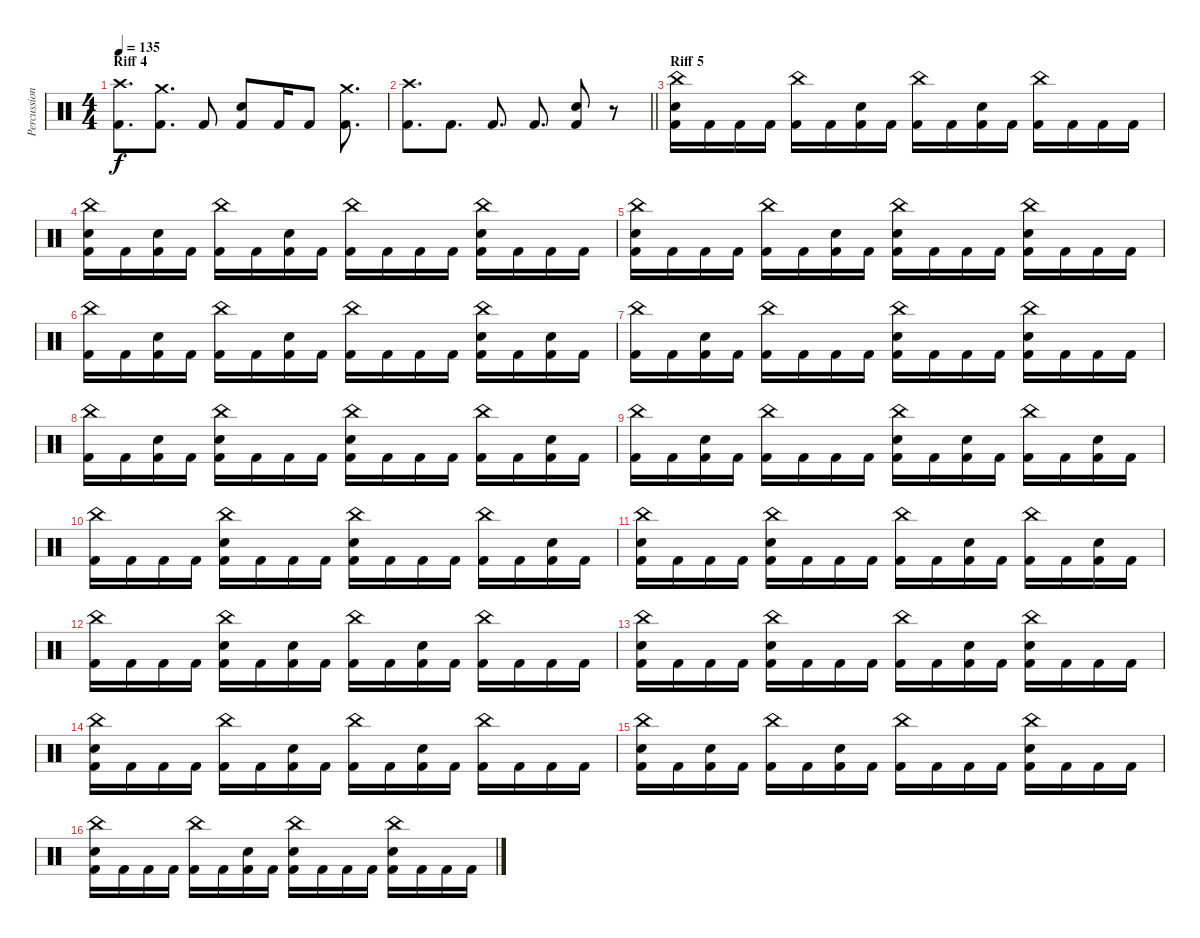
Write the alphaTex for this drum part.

\track ("Percussion" "Percussion") {instrument percussion}
\staff {score}
\articulation defaults
\ts (4 4)
\section ("" "Riff 4")
\tempo 135
\clef neutral
\ks c
("Crash high (hit)" "Kick (hit) 2").8{d dy f} ("Crash medium (hit)" "Kick (hit) 2").8{d} "Kick (hit) 2".8 ("Snare (hit) 2" "Kick (hit) 2").8 "Kick (hit) 2".16 "Kick (hit) 2".8 ("Crash medium (hit)" "Kick (hit) 2").8{d} |
\barLineRight lightlight
("Crash high (hit)" "Kick (hit) 2").8{d} "Kick (hit) 2".8{d} "Kick (hit) 2".8{d} "Kick (hit) 2".8{d} ("Snare (hit) 2" "Kick (hit) 2").8 r.8 |
\section ("" "Riff 5")
("China (hit)" "Snare (hit) 2" "Kick (hit) 2").16{volume 9} "Kick (hit) 2".16 "Kick (hit) 2".16 "Kick (hit) 2".16 ("China (hit)" "Kick (hit) 2").16 "Kick (hit) 2".16 ("Snare (hit) 2" "Kick (hit) 2").16 "Kick (hit) 2".16 ("China (hit)" "Kick (hit) 2").16 "Kick (hit) 2".16 ("Snare (hit) 2" "Kick (hit) 2").16 "Kick (hit) 2".16 ("China (hit)" "Kick (hit) 2").16 "Kick (hit) 2".16 "Kick (hit) 2".16 "Kick (hit) 2".16 |
("China (hit)" "Snare (hit) 2" "Kick (hit) 2").16 "Kick (hit) 2".16 ("Snare (hit) 2" "Kick (hit) 2").16 "Kick (hit) 2".16 ("China (hit)" "Kick (hit) 2").16 "Kick (hit) 2".16 ("Snare (hit) 2" "Kick (hit) 2").16 "Kick (hit) 2".16 ("China (hit)" "Kick (hit) 2").16 "Kick (hit) 2".16 "Kick (hit) 2".16 "Kick (hit) 2".16 ("China (hit)" "Snare (hit) 2" "Kick (hit) 2").16 "Kick (hit) 2".16 "Kick (hit) 2".16 "Kick (hit) 2".16 |
("China (hit)" "Snare (hit) 2" "Kick (hit) 2").16 "Kick (hit) 2".16 "Kick (hit) 2".16 "Kick (hit) 2".16 ("China (hit)" "Kick (hit) 2").16 "Kick (hit) 2".16 ("Snare (hit) 2" "Kick (hit) 2").16 "Kick (hit) 2".16 ("China (hit)" "Snare (hit) 2" "Kick (hit) 2").16 "Kick (hit) 2".16 "Kick (hit) 2".16 "Kick (hit) 2".16 ("China (hit)" "Snare (hit) 2" "Kick (hit) 2").16 "Kick (hit) 2".16 "Kick (hit) 2".16 "Kick (hit) 2".16 |
("China (hit)" "Kick (hit) 2").16 "Kick (hit) 2".16 ("Snare (hit) 2" "Kick (hit) 2").16 "Kick (hit) 2".16 ("China (hit)" "Kick (hit) 2").16 "Kick (hit) 2".16 ("Snare (hit) 2" "Kick (hit) 2").16 "Kick (hit) 2".16 ("China (hit)" "Kick (hit) 2").16 "Kick (hit) 2".16 "Kick (hit) 2".16 "Kick (hit) 2".16 ("China (hit)" "Snare (hit) 2" "Kick (hit) 2").16 "Kick (hit) 2".16 ("Snare (hit) 2" "Kick (hit) 2").16 "Kick (hit) 2".16 |
("China (hit)" "Kick (hit) 2").16 "Kick (hit) 2".16 ("Snare (hit) 2" "Kick (hit) 2").16 "Kick (hit) 2".16 ("China (hit)" "Kick (hit) 2").16 "Kick (hit) 2".16 "Kick (hit) 2".16 "Kick (hit) 2".16 ("China (hit)" "Snare (hit) 2" "Kick (hit) 2").16 "Kick (hit) 2".16 "Kick (hit) 2".16 "Kick (hit) 2".16 ("China (hit)" "Snare (hit) 2" "Kick (hit) 2").16 "Kick (hit) 2".16 "Kick (hit) 2".16 "Kick (hit) 2".16 |
("China (hit)" "Kick (hit) 2").16 "Kick (hit) 2".16 ("Snare (hit) 2" "Kick (hit) 2").16 "Kick (hit) 2".16 ("China (hit)" "Snare (hit) 2" "Kick (hit) 2").16 "Kick (hit) 2".16 "Kick (hit) 2".16 "Kick (hit) 2".16 ("China (hit)" "Snare (hit) 2" "Kick (hit) 2").16 "Kick (hit) 2".16 "Kick (hit) 2".16 "Kick (hit) 2".16 ("China (hit)" "Kick (hit) 2").16 "Kick (hit) 2".16 ("Snare (hit) 2" "Kick (hit) 2").16 "Kick (hit) 2".16 |
("China (hit)" "Kick (hit) 2").16 "Kick (hit) 2".16 ("Snare (hit) 2" "Kick (hit) 2").16 "Kick (hit) 2".16 ("China (hit)" "Kick (hit) 2").16 "Kick (hit) 2".16 "Kick (hit) 2".16 "Kick (hit) 2".16 ("China (hit)" "Snare (hit) 2" "Kick (hit) 2").16 "Kick (hit) 2".16 ("Snare (hit) 2" "Kick (hit) 2").16 "Kick (hit) 2".16 ("China (hit)" "Kick (hit) 2").16 "Kick (hit) 2".16 ("Snare (hit) 2" "Kick (hit) 2").16 "Kick (hit) 2".16 |
("China (hit)" "Kick (hit) 2").16 "Kick (hit) 2".16 "Kick (hit) 2".16 "Kick (hit) 2".16 ("China (hit)" "Snare (hit) 2" "Kick (hit) 2").16 "Kick (hit) 2".16 "Kick (hit) 2".16 "Kick (hit) 2".16 ("China (hit)" "Snare (hit) 2" "Kick (hit) 2").16 "Kick (hit) 2".16 "Kick (hit) 2".16 "Kick (hit) 2".16 ("China (hit)" "Kick (hit) 2").16 "Kick (hit) 2".16 ("Snare (hit) 2" "Kick (hit) 2").16 "Kick (hit) 2".16 |
("China (hit)" "Snare (hit) 2" "Kick (hit) 2").16 "Kick (hit) 2".16 "Kick (hit) 2".16 "Kick (hit) 2".16 ("China (hit)" "Snare (hit) 2" "Kick (hit) 2").16 "Kick (hit) 2".16 "Kick (hit) 2".16 "Kick (hit) 2".16 ("China (hit)" "Kick (hit) 2").16 "Kick (hit) 2".16 ("Snare (hit) 2" "Kick (hit) 2").16 "Kick (hit) 2".16 ("China (hit)" "Kick (hit) 2").16 "Kick (hit) 2".16 ("Snare (hit) 2" "Kick (hit) 2").16 "Kick (hit) 2".16 |
("China (hit)" "Kick (hit) 2").16 "Kick (hit) 2".16 "Kick (hit) 2".16 "Kick (hit) 2".16 ("China (hit)" "Snare (hit) 2" "Kick (hit) 2").16 "Kick (hit) 2".16 ("Snare (hit) 2" "Kick (hit) 2").16 "Kick (hit) 2".16 ("China (hit)" "Kick (hit) 2").16 "Kick (hit) 2".16 ("Snare (hit) 2" "Kick (hit) 2").16 "Kick (hit) 2".16 ("China (hit)" "Kick (hit) 2").16 "Kick (hit) 2".16 "Kick (hit) 2".16 "Kick (hit) 2".16 |
("China (hit)" "Snare (hit) 2" "Kick (hit) 2").16 "Kick (hit) 2".16 "Kick (hit) 2".16 "Kick (hit) 2".16 ("China (hit)" "Snare (hit) 2" "Kick (hit) 2").16 "Kick (hit) 2".16 "Kick (hit) 2".16 "Kick (hit) 2".16 ("China (hit)" "Kick (hit) 2").16 "Kick (hit) 2".16 ("Snare (hit) 2" "Kick (hit) 2").16 "Kick (hit) 2".16 ("China (hit)" "Snare (hit) 2" "Kick (hit) 2").16 "Kick (hit) 2".16 "Kick (hit) 2".16 "Kick (hit) 2".16 |
("China (hit)" "Snare (hit) 2" "Kick (hit) 2").16 "Kick (hit) 2".16 "Kick (hit) 2".16 "Kick (hit) 2".16 ("China (hit)" "Kick (hit) 2").16 "Kick (hit) 2".16 ("Snare (hit) 2" "Kick (hit) 2").16 "Kick (hit) 2".16 ("China (hit)" "Kick (hit) 2").16 "Kick (hit) 2".16 ("Snare (hit) 2" "Kick (hit) 2").16 "Kick (hit) 2".16 ("China (hit)" "Kick (hit) 2").16 "Kick (hit) 2".16 "Kick (hit) 2".16 "Kick (hit) 2".16 |
("China (hit)" "Snare (hit) 2" "Kick (hit) 2").16 "Kick (hit) 2".16 ("Snare (hit) 2" "Kick (hit) 2").16 "Kick (hit) 2".16 ("China (hit)" "Kick (hit) 2").16 "Kick (hit) 2".16 ("Snare (hit) 2" "Kick (hit) 2").16 "Kick (hit) 2".16 ("China (hit)" "Kick (hit) 2").16 "Kick (hit) 2".16 "Kick (hit) 2".16 "Kick (hit) 2".16 ("China (hit)" "Snare (hit) 2" "Kick (hit) 2").16 "Kick (hit) 2".16 "Kick (hit) 2".16 "Kick (hit) 2".16 |
("China (hit)" "Snare (hit) 2" "Kick (hit) 2").16 "Kick (hit) 2".16 "Kick (hit) 2".16 "Kick (hit) 2".16 ("China (hit)" "Kick (hit) 2").16 "Kick (hit) 2".16 ("Snare (hit) 2" "Kick (hit) 2").16 "Kick (hit) 2".16 ("China (hit)" "Snare (hit) 2" "Kick (hit) 2").16 "Kick (hit) 2".16 "Kick (hit) 2".16 "Kick (hit) 2".16 ("China (hit)" "Snare (hit) 2" "Kick (hit) 2").16 "Kick (hit) 2".16 "Kick (hit) 2".16 "Kick (hit) 2".16
